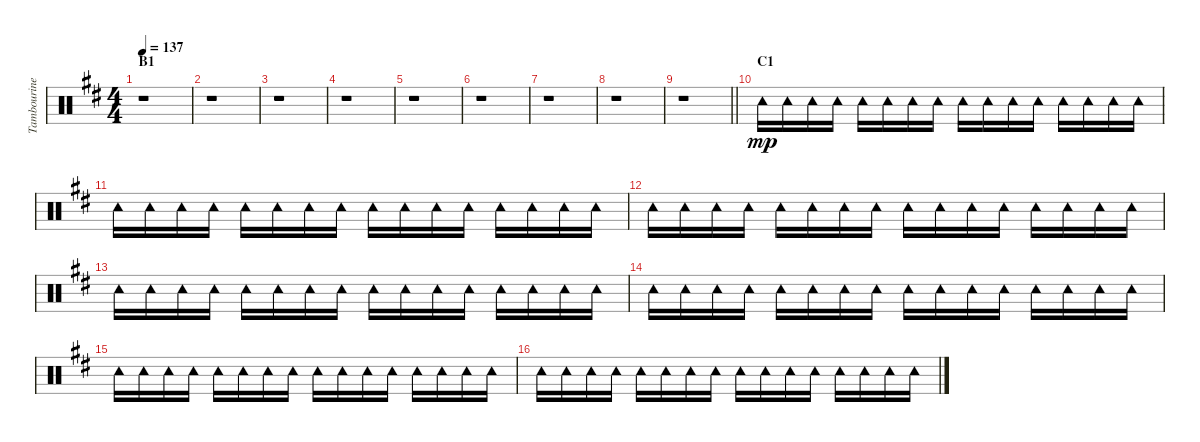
\track ("Tambourine" "Tambourine") {instrument percussion}
\staff {score}
\articulation defaults
\ts (4 4)
\section ("" "B1")
\tempo 137
\clef neutral
\ks d
r.1{dy mp} |
r.1 |
r.1 |
r.1 |
r.1 |
r.1 |
r.1 |
r.1 |
\barLineRight lightlight
r.1 |
\section ("" "C1")
"Tambourine (hit)".16 "Tambourine (hit)".16 "Tambourine (hit)".16 "Tambourine (hit)".16 "Tambourine (hit)".16 "Tambourine (hit)".16 "Tambourine (hit)".16 "Tambourine (hit)".16 "Tambourine (hit)".16 "Tambourine (hit)".16 "Tambourine (hit)".16 "Tambourine (hit)".16 "Tambourine (hit)".16 "Tambourine (hit)".16 "Tambourine (hit)".16 "Tambourine (hit)".16 |
"Tambourine (hit)".16 "Tambourine (hit)".16 "Tambourine (hit)".16 "Tambourine (hit)".16 "Tambourine (hit)".16 "Tambourine (hit)".16 "Tambourine (hit)".16 "Tambourine (hit)".16 "Tambourine (hit)".16 "Tambourine (hit)".16 "Tambourine (hit)".16 "Tambourine (hit)".16 "Tambourine (hit)".16 "Tambourine (hit)".16 "Tambourine (hit)".16 "Tambourine (hit)".16 |
"Tambourine (hit)".16 "Tambourine (hit)".16 "Tambourine (hit)".16 "Tambourine (hit)".16 "Tambourine (hit)".16 "Tambourine (hit)".16 "Tambourine (hit)".16 "Tambourine (hit)".16 "Tambourine (hit)".16 "Tambourine (hit)".16 "Tambourine (hit)".16 "Tambourine (hit)".16 "Tambourine (hit)".16 "Tambourine (hit)".16 "Tambourine (hit)".16 "Tambourine (hit)".16 |
"Tambourine (hit)".16 "Tambourine (hit)".16 "Tambourine (hit)".16 "Tambourine (hit)".16 "Tambourine (hit)".16 "Tambourine (hit)".16 "Tambourine (hit)".16 "Tambourine (hit)".16 "Tambourine (hit)".16 "Tambourine (hit)".16 "Tambourine (hit)".16 "Tambourine (hit)".16 "Tambourine (hit)".16 "Tambourine (hit)".16 "Tambourine (hit)".16 "Tambourine (hit)".16 |
"Tambourine (hit)".16 "Tambourine (hit)".16 "Tambourine (hit)".16 "Tambourine (hit)".16 "Tambourine (hit)".16 "Tambourine (hit)".16 "Tambourine (hit)".16 "Tambourine (hit)".16 "Tambourine (hit)".16 "Tambourine (hit)".16 "Tambourine (hit)".16 "Tambourine (hit)".16 "Tambourine (hit)".16 "Tambourine (hit)".16 "Tambourine (hit)".16 "Tambourine (hit)".16 |
"Tambourine (hit)".16 "Tambourine (hit)".16 "Tambourine (hit)".16 "Tambourine (hit)".16 "Tambourine (hit)".16 "Tambourine (hit)".16 "Tambourine (hit)".16 "Tambourine (hit)".16 "Tambourine (hit)".16 "Tambourine (hit)".16 "Tambourine (hit)".16 "Tambourine (hit)".16 "Tambourine (hit)".16 "Tambourine (hit)".16 "Tambourine (hit)".16 "Tambourine (hit)".16 |
"Tambourine (hit)".16 "Tambourine (hit)".16 "Tambourine (hit)".16 "Tambourine (hit)".16 "Tambourine (hit)".16 "Tambourine (hit)".16 "Tambourine (hit)".16 "Tambourine (hit)".16 "Tambourine (hit)".16 "Tambourine (hit)".16 "Tambourine (hit)".16 "Tambourine (hit)".16 "Tambourine (hit)".16 "Tambourine (hit)".16 "Tambourine (hit)".16 "Tambourine (hit)".16
